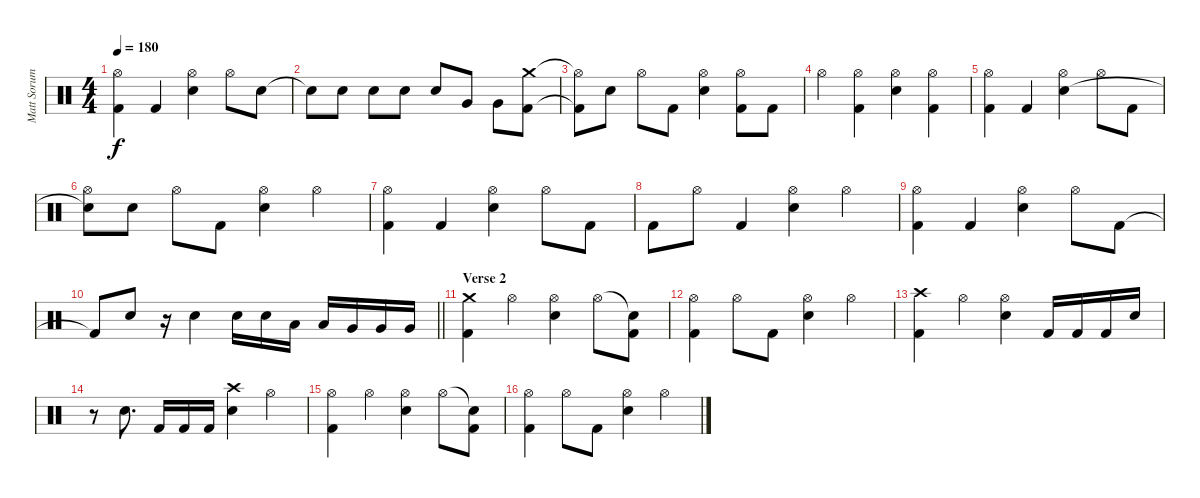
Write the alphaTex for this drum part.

\track ("Matt Sorum" "Matt Sorum") {instrument percussion}
\staff {score}
\articulation defaults
\ts (4 4)
\tempo 180
\clef neutral
\ks c
("Hi-Hat (open)" "Kick (hit) 2").4{dy f} "Kick (hit) 2".4 ("Hi-Hat (open)" "Electric Snare (hit)").4 "Hi-Hat (open)".8 "Electric Snare (hit)".8 |
"Electric Snare (hit)"{t}.8 "Electric Snare (hit)".8 "Electric Snare (hit)".8 "Electric Snare (hit)".8 "Electric Snare (hit)".8 "Very Low Tom (hit)".8 "Very Low Tom (hit)".8 ("Crash medium (hit)" "Kick (hit) 2").8 |
("Hi-Hat (open)"{t} "Kick (hit) 2"{t}).8 "Electric Snare (hit)".8 "Hi-Hat (open)".8 "Kick (hit) 2".8 ("Hi-Hat (open)" "Electric Snare (hit)").4 ("Hi-Hat (open)" "Kick (hit) 2").8 "Kick (hit) 2".8 |
"Hi-Hat (open)".4 ("Hi-Hat (open)" "Kick (hit) 2").4 ("Hi-Hat (open)" "Electric Snare (hit)").4 ("Hi-Hat (open)" "Kick (hit) 2").4 |
("Hi-Hat (open)" "Kick (hit) 2").4 "Kick (hit) 2".4 ("Hi-Hat (open)" "Electric Snare (hit)").4 "Hi-Hat (open)".8 "Kick (hit) 2".8 |
("Hi-Hat (open)" "Snare (hit)"{t}).8 "Electric Snare (hit)".8 "Hi-Hat (open)".8 "Kick (hit) 2".8 ("Hi-Hat (open)" "Electric Snare (hit)").4 "Hi-Hat (open)".4 |
("Hi-Hat (open)" "Kick (hit) 2").4 "Kick (hit) 2".4 ("Hi-Hat (open)" "Electric Snare (hit)").4 "Hi-Hat (open)".8 "Kick (hit) 2".8 |
"Kick (hit) 2".8 "Hi-Hat (open)".8 "Kick (hit) 2".4 ("Hi-Hat (open)" "Electric Snare (hit)").4 "Hi-Hat (open)".4 |
("Hi-Hat (open)" "Kick (hit) 2").4 "Kick (hit) 2".4 ("Hi-Hat (open)" "Electric Snare (hit)").4 "Hi-Hat (open)".8 "Kick (hit) 2".8 |
\barLineRight lightlight "Kick (hit) 2"{t}.8 "Electric Snare (hit)".8
r.16 "Electric Snare (hit)".4 "Electric Snare (hit)".16 "Electric Snare (hit)".16 "Low Tom (hit)".16 "Low Tom (hit)".16 "Very Low Tom (hit)".16 "Very Low Tom (hit)".16 "Very Low Tom (hit)".16 |
\section ("" "Verse 2")
("Crash medium (hit)" "Kick (hit) 2").4 "Hi-Hat (open)".4 ("Hi-Hat (open)" "Electric Snare (hit)").4 "Hi-Hat (open)".8 ("Snare (hit)"{t} "Kick (hit) 2").8 |
("Hi-Hat (open)" "Kick (hit) 2").4 "Hi-Hat (open)".8 "Kick (hit) 2".8 ("Hi-Hat (open)" "Electric Snare (hit)").4 "Hi-Hat (open)".4 |
("Crash high (hit)" "Kick (hit) 2").4 "Hi-Hat (open)".4 ("Hi-Hat (open)" "Electric Snare (hit)").4 "Kick (hit) 2".16 "Kick (hit) 2".16 "Kick (hit) 2".16 "Electric Snare (hit)".16 |
r.8 "Electric Snare (hit)".8{d} "Kick (hit) 2".16 "Kick (hit) 2".16 "Kick (hit) 2".16 ("Crash high (hit)" "Electric Snare (hit)").4 "Hi-Hat (open)".4 |
("Hi-Hat (open)" "Kick (hit) 2").4 "Hi-Hat (open)".4 ("Hi-Hat (open)" "Electric Snare (hit)").4 "Hi-Hat (open)".8 ("Snare (hit)"{t} "Kick (hit) 2").8 |
("Hi-Hat (open)" "Kick (hit) 2").4 "Hi-Hat (open)".8 "Kick (hit) 2".8 ("Hi-Hat (open)" "Electric Snare (hit)").4 "Hi-Hat (open)".4
